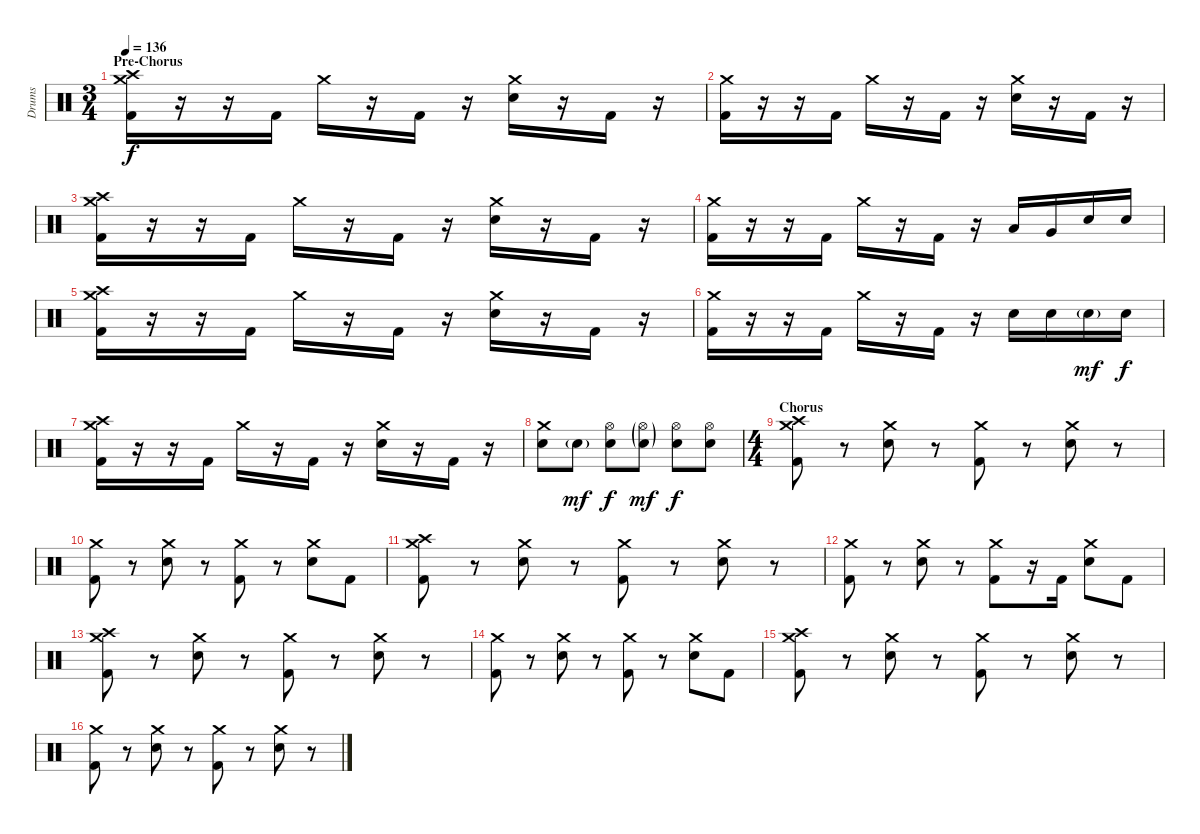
\track ("Drums" "Drums") {instrument percussion}
\staff {score}
\articulation defaults
\ts (3 4)
\section ("" "Pre-Chorus")
\tempo 136
\clef neutral
\ks c
("Crash medium (hit)" "Crash high (hit)" "Kick (hit) 2").16{dy f} r.16 r.16 "Kick (hit) 2".16 "Crash medium (hit)".16 r.16 "Kick (hit) 2".16 r.16 ("Crash medium (hit)" "Electric Snare (hit)").16 r.16 "Kick (hit) 2".16 r.16 |
("Crash medium (hit)" "Kick (hit) 2").16 r.16 r.16 "Kick (hit) 2".16 "Crash medium (hit)".16 r.16 "Kick (hit) 2".16 r.16 ("Crash medium (hit)" "Electric Snare (hit)").16 r.16 "Kick (hit) 2".16 r.16 |
("Crash medium (hit)" "Crash high (hit)" "Kick (hit) 2").16 r.16 r.16 "Kick (hit) 2".16 "Crash medium (hit)".16 r.16 "Kick (hit) 2".16 r.16 ("Crash medium (hit)" "Electric Snare (hit)").16 r.16 "Kick (hit) 2".16 r.16 |
("Crash medium (hit)" "Kick (hit) 2").16 r.16 r.16 "Kick (hit) 2".16 "Crash medium (hit)".16 r.16 "Kick (hit) 2".16 r.16 "Low Tom (hit)".16 "Very Low Tom (hit)".16 "Electric Snare (hit)".16 "Electric Snare (hit)".16 |
("Crash medium (hit)" "Crash high (hit)" "Kick (hit) 2").16 r.16 r.16 "Kick (hit) 2".16 "Crash medium (hit)".16 r.16 "Kick (hit) 2".16 r.16 ("Crash medium (hit)" "Electric Snare (hit)").16 r.16 "Kick (hit) 2".16 r.16 |
("Crash medium (hit)" "Kick (hit) 2").16 r.16 r.16 "Kick (hit) 2".16 "Crash medium (hit)".16 r.16 "Kick (hit) 2".16 r.16 "Electric Snare (hit)".16 "Electric Snare (hit)".16 "Snare (hit) 2"{g}.16{dy mf} "Electric Snare (hit)".16{dy f} |
("Crash medium (hit)" "Crash high (hit)" "Kick (hit) 2").16 r.16 r.16 "Kick (hit) 2".16 "Crash medium (hit)".16 r.16 "Kick (hit) 2".16 r.16 ("Crash medium (hit)" "Electric Snare (hit)").16 r.16 "Kick (hit) 2".16 r.16 |
("Crash medium (hit)" "Electric Snare (hit)").8 "Electric Snare (hit)"{g}.8{dy mf} ("Hi-Hat (open)" "Electric Snare (hit)").8{dy f} ("Hi-Hat (open)"{g} "Electric Snare (hit)"{g}).8{dy mf} ("Hi-Hat (open)" "Electric Snare (hit)").8{dy f} ("Hi-Hat (open)" "Electric Snare (hit)").8 |
\ts (4 4)
\section ("" "Chorus")
("Crash medium (hit)" "Crash high (hit)" "Kick (hit) 2").8 r.8 ("Crash medium (hit)" "Electric Snare (hit)").8 r.8 ("Crash medium (hit)" "Kick (hit) 2").8 r.8 ("Crash medium (hit)" "Electric Snare (hit)").8 r.8 |
("Crash medium (hit)" "Kick (hit) 2").8 r.8 ("Crash medium (hit)" "Electric Snare (hit)").8 r.8 ("Crash medium (hit)" "Kick (hit) 2").8 r.8 ("Crash medium (hit)" "Electric Snare (hit)").8 "Kick (hit) 2".8 |
("Crash medium (hit)" "Crash high (hit)" "Kick (hit) 2").8 r.8 ("Crash medium (hit)" "Electric Snare (hit)").8 r.8 ("Crash medium (hit)" "Kick (hit) 2").8 r.8 ("Crash medium (hit)" "Electric Snare (hit)").8 r.8 |
("Crash medium (hit)" "Kick (hit) 2").8 r.8 ("Crash medium (hit)" "Electric Snare (hit)").8 r.8 ("Crash medium (hit)" "Kick (hit) 2").8 r.16 "Kick (hit) 2".16 ("Crash medium (hit)" "Electric Snare (hit)").8 "Kick (hit) 2".8 |
("Crash medium (hit)" "Crash high (hit)" "Kick (hit) 2").8 r.8 ("Crash medium (hit)" "Electric Snare (hit)").8 r.8 ("Crash medium (hit)" "Kick (hit) 2").8 r.8 ("Crash medium (hit)" "Electric Snare (hit)").8 r.8 |
("Crash medium (hit)" "Kick (hit) 2").8 r.8 ("Crash medium (hit)" "Electric Snare (hit)").8 r.8 ("Crash medium (hit)" "Kick (hit) 2").8 r.8 ("Crash medium (hit)" "Electric Snare (hit)").8 "Kick (hit) 2".8 |
("Crash medium (hit)" "Crash high (hit)" "Kick (hit) 2").8 r.8 ("Crash medium (hit)" "Electric Snare (hit)").8 r.8 ("Crash medium (hit)" "Kick (hit) 2").8 r.8 ("Crash medium (hit)" "Electric Snare (hit)").8 r.8 |
("Crash medium (hit)" "Kick (hit) 2").8 r.8 ("Crash medium (hit)" "Electric Snare (hit)").8 r.8 ("Crash medium (hit)" "Kick (hit) 2").8 r.8 ("Crash medium (hit)" "Electric Snare (hit)").8 r.8
